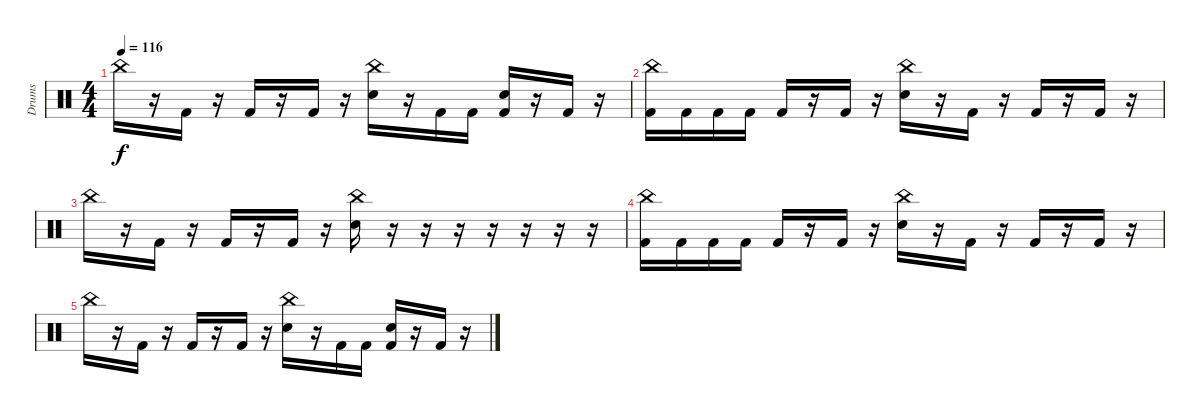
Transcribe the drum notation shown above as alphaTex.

\track ("Drums" "Drums") {instrument percussion}
\staff {score}
\articulation defaults
\ts (4 4)
\tempo 116
\clef neutral
\ks c "China (hit)".16{dy f}
r.16 "Kick (hit) 2".16 r.16 "Kick (hit) 2".16 r.16 "Kick (hit) 2".16 r.16 ("China (hit)" "Electric Snare (hit)").16 r.16 "Kick (hit) 2".16 "Kick (hit) 2".16 ("Electric Snare (hit)" "Kick (hit) 2").16 r.16 "Kick (hit) 2".16 r.16 |
("China (hit)" "Kick (hit) 2").16 "Kick (hit) 2".16 "Kick (hit) 2".16 "Kick (hit) 2".16 "Kick (hit) 2".16 r.16 "Kick (hit) 2".16 r.16 ("China (hit)" "Electric Snare (hit)").16 r.16 "Kick (hit) 2".16 r.16 "Kick (hit) 2".16 r.16 "Kick (hit) 2".16 r.16 |
"China (hit)".16 r.16 "Kick (hit) 2".16 r.16 "Kick (hit) 2".16 r.16 "Kick (hit) 2".16 r.16 ("China (hit)" "Electric Snare (hit)").16 r.16 r.16 r.16 r.16 r.16 r.16 r.16 |
("China (hit)" "Kick (hit) 2").16 "Kick (hit) 2".16 "Kick (hit) 2".16 "Kick (hit) 2".16 "Kick (hit) 2".16 r.16 "Kick (hit) 2".16 r.16 ("China (hit)" "Electric Snare (hit)").16 r.16 "Kick (hit) 2".16 r.16 "Kick (hit) 2".16 r.16 "Kick (hit) 2".16 r.16 |
"China (hit)".16 r.16 "Kick (hit) 2".16 r.16 "Kick (hit) 2".16 r.16 "Kick (hit) 2".16 r.16 ("China (hit)" "Electric Snare (hit)").16 r.16 "Kick (hit) 2".16 "Kick (hit) 2".16 ("Electric Snare (hit)" "Kick (hit) 2").16 r.16 "Kick (hit) 2".16 r.16
